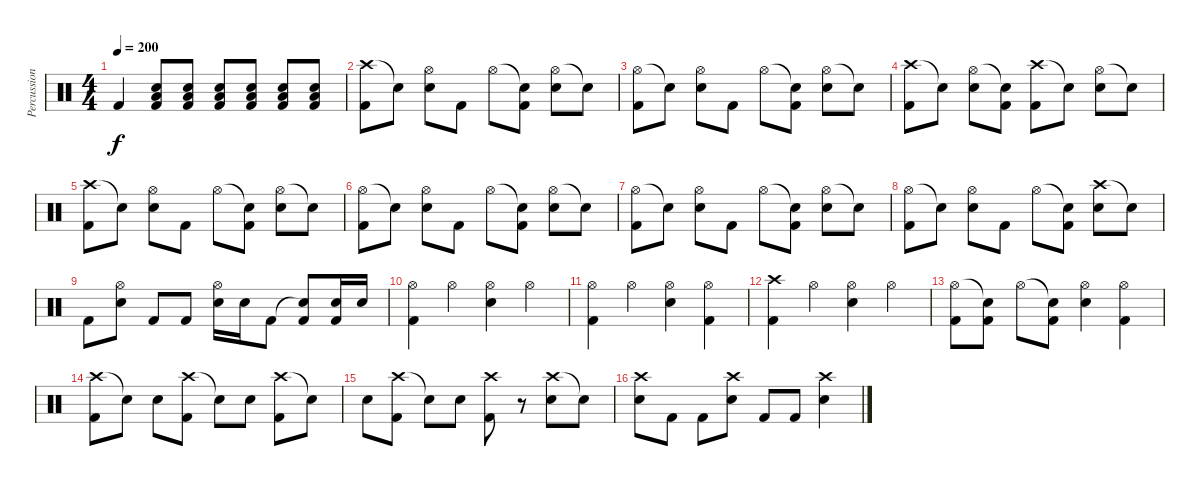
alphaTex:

\track ("Percussions" "Percussion") {instrument percussion}
\staff {score}
\articulation defaults
\ts (4 4)
\tempo 200
\clef neutral
\ks c "Kick (hit) 2".4{dy f}
("Electric Snare (hit)" "Low Tom (hit)" "Kick (hit) 2").8 ("Electric Snare (hit)" "Low Tom (hit)" "Kick (hit) 2").8 ("Electric Snare (hit)" "Low Tom (hit)" "Kick (hit) 2").8 ("Electric Snare (hit)" "Low Tom (hit)" "Kick (hit) 2").8 ("Electric Snare (hit)" "Low Tom (hit)" "Kick (hit) 2").8 ("Electric Snare (hit)" "Low Tom (hit)" "Kick (hit) 2").8 |
("Crash high (hit)" "Kick (hit) 2").8 "Snare (hit)"{t}.8 ("Hi-Hat (open)" "Electric Snare (hit)").8 "Kick (hit) 2".8 "Hi-Hat (open)".8 ("Snare (hit)"{t} "Kick (hit) 2").8 ("Hi-Hat (open)" "Electric Snare (hit)").8 "Snare (hit)"{t}.8 |
("Hi-Hat (open)" "Kick (hit) 2").8 "Snare (hit)"{t}.8 ("Hi-Hat (open)" "Electric Snare (hit)").8 "Kick (hit) 2".8 "Hi-Hat (open)".8 ("Snare (hit)"{t} "Kick (hit) 2").8 ("Hi-Hat (open)" "Electric Snare (hit)").8 "Snare (hit)"{t}.8 |
("Crash high (hit)" "Kick (hit) 2").8 "Snare (hit)"{t}.8 ("Hi-Hat (open)" "Electric Snare (hit)").8 ("Snare (hit)"{t} "Kick (hit) 2").8 ("Crash high (hit)" "Kick (hit) 2").8 "Snare (hit)"{t}.8 ("Hi-Hat (open)" "Electric Snare (hit)").8 "Snare (hit)"{t}.8 |
("Crash high (hit)" "Kick (hit) 2").8 "Snare (hit)"{t}.8 ("Hi-Hat (open)" "Electric Snare (hit)").8 "Kick (hit) 2".8 "Hi-Hat (open)".8 ("Snare (hit)"{t} "Kick (hit) 2").8 ("Hi-Hat (open)" "Electric Snare (hit)").8 "Snare (hit)"{t}.8 |
("Hi-Hat (open)" "Kick (hit) 2").8 "Snare (hit)"{t}.8 ("Hi-Hat (open)" "Electric Snare (hit)").8 "Kick (hit) 2".8 "Hi-Hat (open)".8 ("Snare (hit)"{t} "Kick (hit) 2").8 ("Hi-Hat (open)" "Electric Snare (hit)").8 "Snare (hit)"{t}.8 |
("Hi-Hat (open)" "Kick (hit) 2").8 "Snare (hit)"{t}.8 ("Hi-Hat (open)" "Electric Snare (hit)").8 "Kick (hit) 2".8 "Hi-Hat (open)".8 ("Snare (hit)"{t} "Kick (hit) 2").8 ("Hi-Hat (open)" "Electric Snare (hit)").8 "Snare (hit)"{t}.8 |
("Hi-Hat (open)" "Kick (hit) 2").8 "Snare (hit)"{t}.8 ("Hi-Hat (open)" "Electric Snare (hit)").8 "Kick (hit) 2".8 "Hi-Hat (open)".8 ("Snare (hit)"{t} "Kick (hit) 2").8 ("Crash high (hit)" "Electric Snare (hit)").8 "Snare (hit)"{t}.8 |
"Kick (hit) 2".8 ("Hi-Hat (open)" "Electric Snare (hit)").8 "Kick (hit) 2".8 "Kick (hit) 2".8 ("Hi-Hat (open)" "Electric Snare (hit)").16 "Electric Snare (hit)".16 "Kick (hit) 2".8 ("Snare (hit)"{t} "Kick (hit) 2").8 ("Electric Snare (hit)" "Kick (hit) 2").16 "Electric Snare (hit)".16 |
("Hi-Hat (open)" "Kick (hit) 2").4 "Hi-Hat (open)".4 ("Hi-Hat (open)" "Electric Snare (hit)").4 "Hi-Hat (open)".4 |
("Hi-Hat (open)" "Kick (hit) 2").4 "Hi-Hat (open)".4 ("Hi-Hat (open)" "Electric Snare (hit)").4 ("Hi-Hat (open)" "Kick (hit) 2").4 |
("Crash high (hit)" "Kick (hit) 2").4 "Hi-Hat (open)".4 ("Hi-Hat (open)" "Electric Snare (hit)").4 "Hi-Hat (open)".4 |
("Hi-Hat (open)" "Kick (hit) 2").8 ("Snare (hit)"{t} "Kick (hit) 2").8 "Hi-Hat (open)".8 ("Snare (hit)"{t} "Kick (hit) 2").8 ("Hi-Hat (open)" "Electric Snare (hit)").4 ("Hi-Hat (open)" "Kick (hit) 2").4 |
("Crash high (hit)" "Kick (hit) 2").8 "Snare (hit)"{t}.8 "Electric Snare (hit)".8 ("Crash high (hit)" "Kick (hit) 2").8 "Snare (hit)"{t}.8 "Electric Snare (hit)".8 ("Crash high (hit)" "Kick (hit) 2").8 "Snare (hit)"{t}.8 |
"Electric Snare (hit)".8 ("Crash high (hit)" "Kick (hit) 2").8 "Snare (hit)"{t}.8 "Electric Snare (hit)".8 ("Crash high (hit)" "Kick (hit) 2").8 r.8 ("Crash high (hit)" "Electric Snare (hit)").8 "Snare (hit)"{t}.8 |
("Crash high (hit)" "Electric Snare (hit)").8 "Kick (hit) 2".8 "Kick (hit) 2".8 ("Crash high (hit)" "Electric Snare (hit)").8 "Kick (hit) 2".8 "Kick (hit) 2".8 ("Crash high (hit)" "Electric Snare (hit)").4
